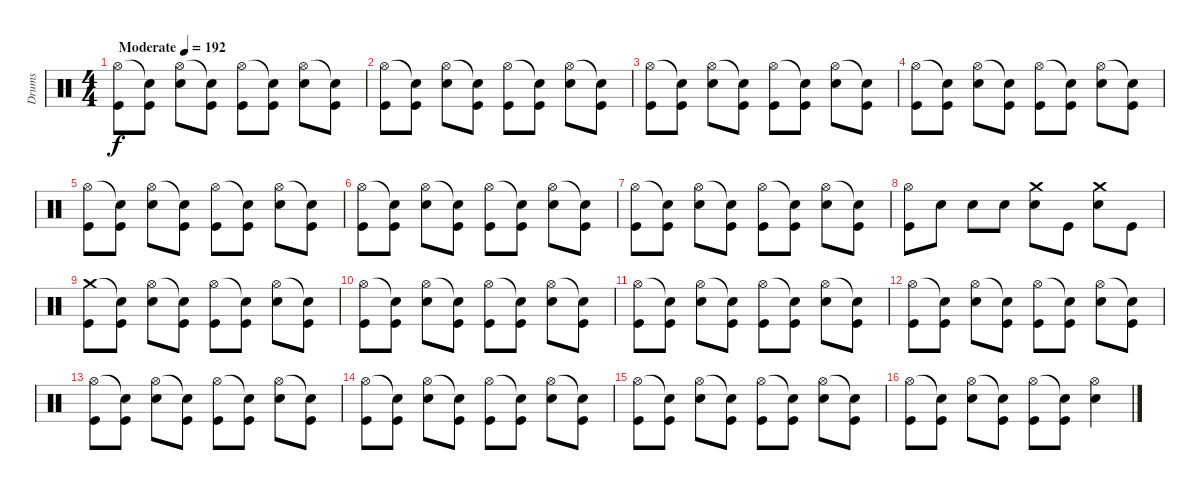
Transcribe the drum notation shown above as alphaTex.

\track ("Drums" "Drums") {instrument percussion}
\staff {score}
\articulation defaults
\ts (4 4)
\tempo (192 "Moderate")
\clef neutral
\ks c
("Kick (hit)" "Hi-Hat (open)").8{dy f} ("Kick (hit)" "Snare (hit)"{t}).8 ("Snare (hit) 2" "Hi-Hat (open)").8 ("Kick (hit)" "Snare (hit)"{t}).8 ("Kick (hit)" "Hi-Hat (open)").8 ("Kick (hit)" "Snare (hit)"{t}).8 ("Snare (hit) 2" "Hi-Hat (open)").8 ("Kick (hit)" "Snare (hit)"{t}).8 |
("Kick (hit)" "Hi-Hat (open)").8 ("Kick (hit)" "Snare (hit)"{t}).8 ("Snare (hit) 2" "Hi-Hat (open)").8 ("Kick (hit)" "Snare (hit)"{t}).8 ("Kick (hit)" "Hi-Hat (open)").8 ("Kick (hit)" "Snare (hit)"{t}).8 ("Snare (hit) 2" "Hi-Hat (open)").8 ("Kick (hit)" "Snare (hit)"{t}).8 |
("Kick (hit)" "Hi-Hat (open)").8 ("Kick (hit)" "Snare (hit)"{t}).8 ("Snare (hit) 2" "Hi-Hat (open)").8 ("Kick (hit)" "Snare (hit)"{t}).8 ("Kick (hit)" "Hi-Hat (open)").8 ("Kick (hit)" "Snare (hit)"{t}).8 ("Snare (hit) 2" "Hi-Hat (open)").8 ("Kick (hit)" "Snare (hit)"{t}).8 |
("Kick (hit)" "Hi-Hat (open)").8 ("Kick (hit)" "Snare (hit)"{t}).8 ("Snare (hit) 2" "Hi-Hat (open)").8 ("Kick (hit)" "Snare (hit)"{t}).8 ("Kick (hit)" "Hi-Hat (open)").8 ("Kick (hit)" "Snare (hit)"{t}).8 ("Snare (hit) 2" "Hi-Hat (open)").8 ("Kick (hit)" "Snare (hit)"{t}).8 |
("Kick (hit)" "Hi-Hat (open)").8 ("Kick (hit)" "Snare (hit)"{t}).8 ("Snare (hit) 2" "Hi-Hat (open)").8 ("Kick (hit)" "Snare (hit)"{t}).8 ("Kick (hit)" "Hi-Hat (open)").8 ("Kick (hit)" "Snare (hit)"{t}).8 ("Snare (hit) 2" "Hi-Hat (open)").8 ("Kick (hit)" "Snare (hit)"{t}).8 |
("Kick (hit)" "Hi-Hat (open)").8 ("Kick (hit)" "Snare (hit)"{t}).8 ("Snare (hit) 2" "Hi-Hat (open)").8 ("Kick (hit)" "Snare (hit)"{t}).8 ("Kick (hit)" "Hi-Hat (open)").8 ("Kick (hit)" "Snare (hit)"{t}).8 ("Snare (hit) 2" "Hi-Hat (open)").8 ("Kick (hit)" "Snare (hit)"{t}).8 |
("Kick (hit)" "Hi-Hat (open)").8 ("Kick (hit)" "Snare (hit)"{t}).8 ("Snare (hit) 2" "Hi-Hat (open)").8 ("Kick (hit)" "Snare (hit)"{t}).8 ("Kick (hit)" "Hi-Hat (open)").8 ("Kick (hit)" "Snare (hit)"{t}).8 ("Snare (hit) 2" "Hi-Hat (open)").8 ("Kick (hit)" "Snare (hit)"{t}).8 |
("Kick (hit)" "Hi-Hat (open)").8 "Snare (hit) 2".8 "Snare (hit) 2".8 "Snare (hit) 2".8 ("Snare (hit) 2" "Crash medium (hit)").8 "Kick (hit)".8 ("Snare (hit) 2" "Crash medium (hit)").8 "Kick (hit)".8 |
("Kick (hit)" "Crash medium (hit)").8 ("Kick (hit)" "Snare (hit)"{t}).8 ("Snare (hit) 2" "Hi-Hat (open)").8 ("Kick (hit)" "Snare (hit)"{t}).8 ("Kick (hit)" "Hi-Hat (open)").8 ("Kick (hit)" "Snare (hit)"{t}).8 ("Snare (hit) 2" "Hi-Hat (open)").8 ("Kick (hit)" "Snare (hit)"{t}).8 |
("Kick (hit)" "Hi-Hat (open)").8 ("Kick (hit)" "Snare (hit)"{t}).8 ("Snare (hit) 2" "Hi-Hat (open)").8 ("Kick (hit)" "Snare (hit)"{t}).8 ("Kick (hit)" "Hi-Hat (open)").8 ("Kick (hit)" "Snare (hit)"{t}).8 ("Snare (hit) 2" "Hi-Hat (open)").8 ("Kick (hit)" "Snare (hit)"{t}).8 |
("Kick (hit)" "Hi-Hat (open)").8 ("Kick (hit)" "Snare (hit)"{t}).8 ("Snare (hit) 2" "Hi-Hat (open)").8 ("Kick (hit)" "Snare (hit)"{t}).8 ("Kick (hit)" "Hi-Hat (open)").8 ("Kick (hit)" "Snare (hit)"{t}).8 ("Snare (hit) 2" "Hi-Hat (open)").8 ("Kick (hit)" "Snare (hit)"{t}).8 |
("Kick (hit)" "Hi-Hat (open)").8 ("Kick (hit)" "Snare (hit)"{t}).8 ("Snare (hit) 2" "Hi-Hat (open)").8 ("Kick (hit)" "Snare (hit)"{t}).8 ("Kick (hit)" "Hi-Hat (open)").8 ("Kick (hit)" "Snare (hit)"{t}).8 ("Snare (hit) 2" "Hi-Hat (open)").8 ("Kick (hit)" "Snare (hit)"{t}).8 |
("Kick (hit)" "Hi-Hat (open)").8 ("Kick (hit)" "Snare (hit)"{t}).8 ("Snare (hit) 2" "Hi-Hat (open)").8 ("Kick (hit)" "Snare (hit)"{t}).8 ("Kick (hit)" "Hi-Hat (open)").8 ("Kick (hit)" "Snare (hit)"{t}).8 ("Snare (hit) 2" "Hi-Hat (open)").8 ("Kick (hit)" "Snare (hit)"{t}).8 |
("Kick (hit)" "Hi-Hat (open)").8 ("Kick (hit)" "Snare (hit)"{t}).8 ("Snare (hit) 2" "Hi-Hat (open)").8 ("Kick (hit)" "Snare (hit)"{t}).8 ("Kick (hit)" "Hi-Hat (open)").8 ("Kick (hit)" "Snare (hit)"{t}).8 ("Snare (hit) 2" "Hi-Hat (open)").8 ("Kick (hit)" "Snare (hit)"{t}).8 |
("Kick (hit)" "Hi-Hat (open)").8 ("Kick (hit)" "Snare (hit)"{t}).8 ("Snare (hit) 2" "Hi-Hat (open)").8 ("Kick (hit)" "Snare (hit)"{t}).8 ("Kick (hit)" "Hi-Hat (open)").8 ("Kick (hit)" "Snare (hit)"{t}).8 ("Snare (hit) 2" "Hi-Hat (open)").8 ("Kick (hit)" "Snare (hit)"{t}).8 |
("Kick (hit)" "Hi-Hat (open)").8 ("Kick (hit)" "Snare (hit)"{t}).8 ("Snare (hit) 2" "Hi-Hat (open)").8 ("Kick (hit)" "Snare (hit)"{t}).8 ("Kick (hit)" "Hi-Hat (open)").8 ("Kick (hit)" "Snare (hit)"{t}).8 ("Snare (hit) 2" "Hi-Hat (open)").4
